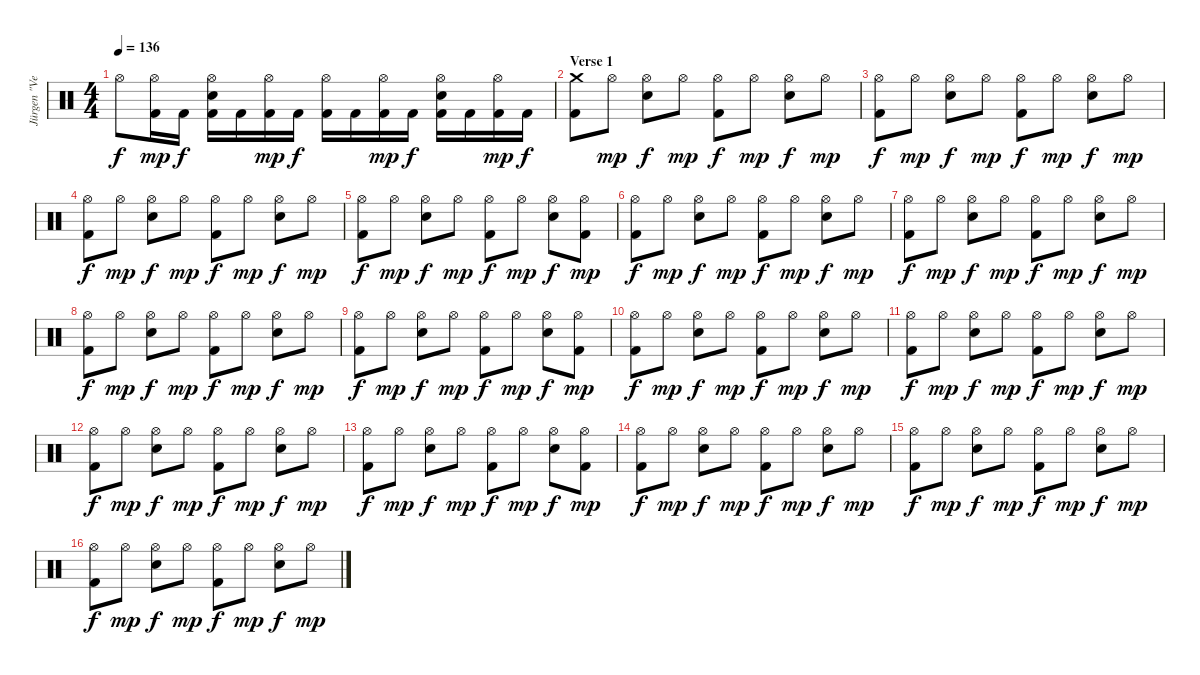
\track ("Jürgen \"Ventor\" Reil" "Jürgen \"Ve") {instrument percussion}
\staff {score}
\articulation defaults
\ts (4 4)
\tempo 136
\clef neutral
\ks c "Hi-Hat (open)".8{dy f}
("Kick (hit) 2" "Hi-Hat (open)").16{dy mp} "Kick (hit) 2".16{dy f} ("Kick (hit) 2" "Hi-Hat (open)" "Snare (hit) 2").16 "Kick (hit) 2".16 ("Kick (hit) 2" "Hi-Hat (open)").16{dy mp} "Kick (hit) 2".16{dy f} ("Kick (hit) 2" "Hi-Hat (open)").16 "Kick (hit) 2".16 ("Kick (hit) 2" "Hi-Hat (open)").16{dy mp} "Kick (hit) 2".16{dy f} ("Kick (hit) 2" "Hi-Hat (open)" "Snare (hit) 2").16 "Kick (hit) 2".16 ("Kick (hit) 2" "Hi-Hat (open)").16{dy mp} "Kick (hit) 2".16{dy f} |
\section ("" "Verse 1")
("Kick (hit) 2" "Crash medium (hit)").8 "Hi-Hat (open)".8{dy mp} ("Hi-Hat (open)" "Snare (hit) 2").8{dy f} "Hi-Hat (open)".8{dy mp} ("Kick (hit) 2" "Hi-Hat (open)").8{dy f} "Hi-Hat (open)".8{dy mp} ("Hi-Hat (open)" "Snare (hit) 2").8{dy f} "Hi-Hat (open)".8{dy mp} |
("Kick (hit) 2" "Hi-Hat (open)").8{dy f} "Hi-Hat (open)".8{dy mp} ("Hi-Hat (open)" "Snare (hit) 2").8{dy f} "Hi-Hat (open)".8{dy mp} ("Kick (hit) 2" "Hi-Hat (open)").8{dy f} "Hi-Hat (open)".8{dy mp} ("Hi-Hat (open)" "Snare (hit) 2").8{dy f} "Hi-Hat (open)".8{dy mp} |
("Kick (hit) 2" "Hi-Hat (open)").8{dy f} "Hi-Hat (open)".8{dy mp} ("Hi-Hat (open)" "Snare (hit) 2").8{dy f} "Hi-Hat (open)".8{dy mp} ("Kick (hit) 2" "Hi-Hat (open)").8{dy f} "Hi-Hat (open)".8{dy mp} ("Hi-Hat (open)" "Snare (hit) 2").8{dy f} "Hi-Hat (open)".8{dy mp} |
("Kick (hit) 2" "Hi-Hat (open)").8{dy f} "Hi-Hat (open)".8{dy mp} ("Hi-Hat (open)" "Snare (hit) 2").8{dy f} "Hi-Hat (open)".8{dy mp} ("Kick (hit) 2" "Hi-Hat (open)").8{dy f} "Hi-Hat (open)".8{dy mp} ("Hi-Hat (open)" "Snare (hit) 2").8{dy f} ("Kick (hit) 2" "Hi-Hat (open)").8{dy mp} |
("Kick (hit) 2" "Hi-Hat (open)").8{dy f} "Hi-Hat (open)".8{dy mp} ("Hi-Hat (open)" "Snare (hit) 2").8{dy f} "Hi-Hat (open)".8{dy mp} ("Kick (hit) 2" "Hi-Hat (open)").8{dy f} "Hi-Hat (open)".8{dy mp} ("Hi-Hat (open)" "Snare (hit) 2").8{dy f} "Hi-Hat (open)".8{dy mp} |
("Kick (hit) 2" "Hi-Hat (open)").8{dy f} "Hi-Hat (open)".8{dy mp} ("Hi-Hat (open)" "Snare (hit) 2").8{dy f} "Hi-Hat (open)".8{dy mp} ("Kick (hit) 2" "Hi-Hat (open)").8{dy f} "Hi-Hat (open)".8{dy mp} ("Hi-Hat (open)" "Snare (hit) 2").8{dy f} "Hi-Hat (open)".8{dy mp} |
("Kick (hit) 2" "Hi-Hat (open)").8{dy f} "Hi-Hat (open)".8{dy mp} ("Hi-Hat (open)" "Snare (hit) 2").8{dy f} "Hi-Hat (open)".8{dy mp} ("Kick (hit) 2" "Hi-Hat (open)").8{dy f} "Hi-Hat (open)".8{dy mp} ("Hi-Hat (open)" "Snare (hit) 2").8{dy f} "Hi-Hat (open)".8{dy mp} |
("Kick (hit) 2" "Hi-Hat (open)").8{dy f} "Hi-Hat (open)".8{dy mp} ("Hi-Hat (open)" "Snare (hit) 2").8{dy f} "Hi-Hat (open)".8{dy mp} ("Kick (hit) 2" "Hi-Hat (open)").8{dy f} "Hi-Hat (open)".8{dy mp} ("Hi-Hat (open)" "Snare (hit) 2").8{dy f} ("Kick (hit) 2" "Hi-Hat (open)").8{dy mp} |
("Kick (hit) 2" "Hi-Hat (open)").8{dy f} "Hi-Hat (open)".8{dy mp} ("Hi-Hat (open)" "Snare (hit) 2").8{dy f} "Hi-Hat (open)".8{dy mp} ("Kick (hit) 2" "Hi-Hat (open)").8{dy f} "Hi-Hat (open)".8{dy mp} ("Hi-Hat (open)" "Snare (hit) 2").8{dy f} "Hi-Hat (open)".8{dy mp} |
("Kick (hit) 2" "Hi-Hat (open)").8{dy f} "Hi-Hat (open)".8{dy mp} ("Hi-Hat (open)" "Snare (hit) 2").8{dy f} "Hi-Hat (open)".8{dy mp} ("Kick (hit) 2" "Hi-Hat (open)").8{dy f} "Hi-Hat (open)".8{dy mp} ("Hi-Hat (open)" "Snare (hit) 2").8{dy f} "Hi-Hat (open)".8{dy mp} |
("Kick (hit) 2" "Hi-Hat (open)").8{dy f} "Hi-Hat (open)".8{dy mp} ("Hi-Hat (open)" "Snare (hit) 2").8{dy f} "Hi-Hat (open)".8{dy mp} ("Kick (hit) 2" "Hi-Hat (open)").8{dy f} "Hi-Hat (open)".8{dy mp} ("Hi-Hat (open)" "Snare (hit) 2").8{dy f} "Hi-Hat (open)".8{dy mp} |
("Kick (hit) 2" "Hi-Hat (open)").8{dy f} "Hi-Hat (open)".8{dy mp} ("Hi-Hat (open)" "Snare (hit) 2").8{dy f} "Hi-Hat (open)".8{dy mp} ("Kick (hit) 2" "Hi-Hat (open)").8{dy f} "Hi-Hat (open)".8{dy mp} ("Hi-Hat (open)" "Snare (hit) 2").8{dy f} ("Kick (hit) 2" "Hi-Hat (open)").8{dy mp} |
("Kick (hit) 2" "Hi-Hat (open)").8{dy f} "Hi-Hat (open)".8{dy mp} ("Hi-Hat (open)" "Snare (hit) 2").8{dy f} "Hi-Hat (open)".8{dy mp} ("Kick (hit) 2" "Hi-Hat (open)").8{dy f} "Hi-Hat (open)".8{dy mp} ("Hi-Hat (open)" "Snare (hit) 2").8{dy f} "Hi-Hat (open)".8{dy mp} |
("Kick (hit) 2" "Hi-Hat (open)").8{dy f} "Hi-Hat (open)".8{dy mp} ("Hi-Hat (open)" "Snare (hit) 2").8{dy f} "Hi-Hat (open)".8{dy mp} ("Kick (hit) 2" "Hi-Hat (open)").8{dy f} "Hi-Hat (open)".8{dy mp} ("Hi-Hat (open)" "Snare (hit) 2").8{dy f} "Hi-Hat (open)".8{dy mp} |
("Kick (hit) 2" "Hi-Hat (open)").8{dy f} "Hi-Hat (open)".8{dy mp} ("Hi-Hat (open)" "Snare (hit) 2").8{dy f} "Hi-Hat (open)".8{dy mp} ("Kick (hit) 2" "Hi-Hat (open)").8{dy f} "Hi-Hat (open)".8{dy mp} ("Hi-Hat (open)" "Snare (hit) 2").8{dy f} "Hi-Hat (open)".8{dy mp}
